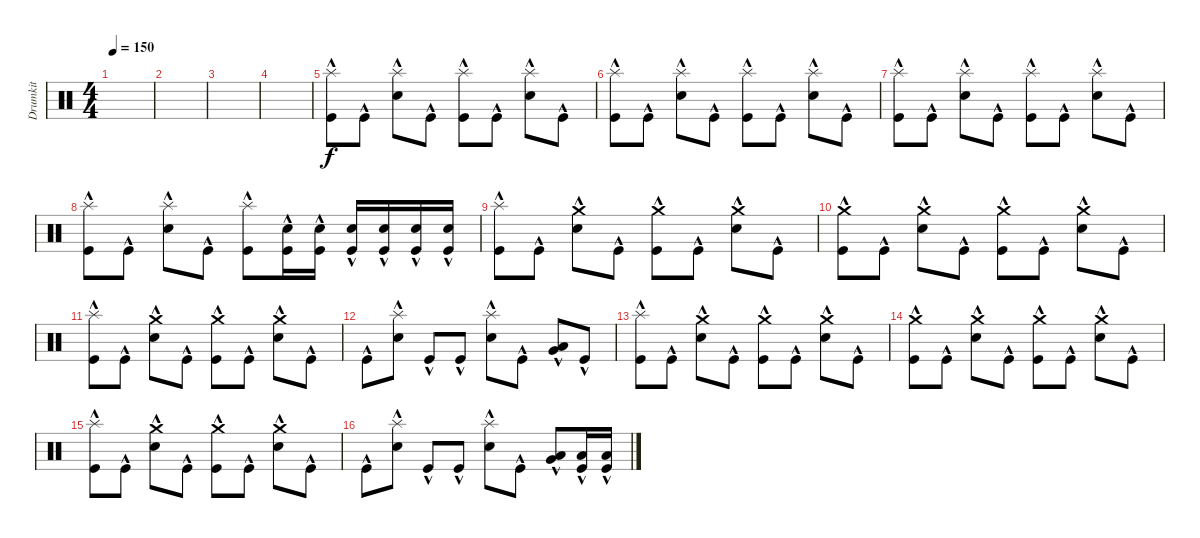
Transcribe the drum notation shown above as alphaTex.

\track ("Drumkit" "Drumkit") {instrument percussion}
\staff {score}
\articulation defaults
\ts (4 4)
\tempo 150
\clef neutral
\ks c
|
|
|
|
("Kick (hit)"{hac} "Splash (hit)"{hac}).8 "Kick (hit)"{hac}.8 ("Snare (hit) 2"{hac} "Splash (hit)"{hac}).8 "Kick (hit)"{hac}.8 ("Kick (hit)"{hac} "Splash (hit)"{hac}).8 "Kick (hit)"{hac}.8 ("Snare (hit) 2"{hac} "Splash (hit)"{hac}).8 "Kick (hit)"{hac}.8 |
("Kick (hit)"{hac} "Splash (hit)"{hac}).8 "Kick (hit)"{hac}.8 ("Snare (hit) 2"{hac} "Splash (hit)"{hac}).8 "Kick (hit)"{hac}.8 ("Kick (hit)"{hac} "Splash (hit)"{hac}).8 "Kick (hit)"{hac}.8 ("Snare (hit) 2"{hac} "Splash (hit)"{hac}).8 "Kick (hit)"{hac}.8 |
("Kick (hit)"{hac} "Splash (hit)"{hac}).8 "Kick (hit)"{hac}.8 ("Snare (hit) 2"{hac} "Splash (hit)"{hac}).8 "Kick (hit)"{hac}.8 ("Kick (hit)"{hac} "Splash (hit)"{hac}).8 "Kick (hit)"{hac}.8 ("Snare (hit) 2"{hac} "Splash (hit)"{hac}).8 "Kick (hit)"{hac}.8 |
("Kick (hit)"{hac} "Splash (hit)"{hac}).8 "Kick (hit)"{hac}.8 ("Snare (hit) 2"{hac} "Splash (hit)"{hac}).8 "Kick (hit)"{hac}.8 ("Kick (hit)"{hac} "Splash (hit)"{hac}).8 ("Snare (hit) 2"{hac} "Kick (hit)").16 ("Snare (hit) 2"{hac} "Kick (hit)").16 ("Snare (hit) 2"{hac} "Kick (hit)").16 ("Snare (hit) 2"{hac} "Kick (hit)").16 ("Snare (hit) 2"{hac} "Kick (hit)").16 ("Snare (hit) 2"{hac} "Kick (hit)").16 |
("Kick (hit)"{hac} "Splash (hit)"{hac}).8 "Kick (hit)"{hac}.8 ("Snare (hit) 2"{hac} "Crash medium (hit)").8 "Kick (hit)"{hac}.8 ("Kick (hit)"{hac} "Crash medium (hit)").8 "Kick (hit)"{hac}.8 ("Snare (hit) 2"{hac} "Crash medium (hit)").8 "Kick (hit)"{hac}.8 |
("Kick (hit)"{hac} "Crash medium (hit)").8 "Kick (hit)"{hac}.8 ("Snare (hit) 2"{hac} "Crash medium (hit)").8 "Kick (hit)"{hac}.8 ("Kick (hit)"{hac} "Crash medium (hit)").8 "Kick (hit)"{hac}.8 ("Snare (hit) 2"{hac} "Crash medium (hit)").8 "Kick (hit)"{hac}.8 |
("Kick (hit)"{hac} "Splash (hit)"{hac}).8 "Kick (hit)"{hac}.8 ("Snare (hit) 2"{hac} "Crash medium (hit)").8 "Kick (hit)"{hac}.8 ("Kick (hit)"{hac} "Crash medium (hit)").8 "Kick (hit)"{hac}.8 ("Snare (hit) 2"{hac} "Crash medium (hit)").8 "Kick (hit)"{hac}.8 |
"Kick (hit)"{hac}.8 ("Snare (hit) 2"{hac} "Splash (hit)"{hac}).8 "Kick (hit)"{hac}.8 "Kick (hit)"{hac}.8 ("Snare (hit) 2"{hac} "Splash (hit)"{hac}).8 "Kick (hit)"{hac}.8 ("Low Tom (hit)"{hac} "Very Low Tom (hit)"{hac}).8 "Kick (hit)"{hac}.8 |
("Kick (hit)"{hac} "Splash (hit)"{hac}).8 "Kick (hit)"{hac}.8 ("Snare (hit) 2"{hac} "Crash medium (hit)").8 "Kick (hit)"{hac}.8 ("Kick (hit)"{hac} "Crash medium (hit)").8 "Kick (hit)"{hac}.8 ("Snare (hit) 2"{hac} "Crash medium (hit)").8 "Kick (hit)"{hac}.8 |
("Kick (hit)"{hac} "Crash medium (hit)").8 "Kick (hit)"{hac}.8 ("Snare (hit) 2"{hac} "Crash medium (hit)").8 "Kick (hit)"{hac}.8 ("Kick (hit)"{hac} "Crash medium (hit)").8 "Kick (hit)"{hac}.8 ("Snare (hit) 2"{hac} "Crash medium (hit)").8 "Kick (hit)"{hac}.8 |
("Kick (hit)"{hac} "Splash (hit)"{hac}).8 "Kick (hit)"{hac}.8 ("Snare (hit) 2"{hac} "Crash medium (hit)").8 "Kick (hit)"{hac}.8 ("Kick (hit)"{hac} "Crash medium (hit)").8 "Kick (hit)"{hac}.8 ("Snare (hit) 2"{hac} "Crash medium (hit)").8 "Kick (hit)"{hac}.8 |
"Kick (hit)"{hac}.8 ("Snare (hit) 2"{hac} "Splash (hit)"{hac}).8 "Kick (hit)"{hac}.8 "Kick (hit)"{hac}.8 ("Snare (hit) 2"{hac} "Splash (hit)"{hac}).8 "Kick (hit)"{hac}.8 ("Low Tom (hit)"{hac} "Very Low Tom (hit)"{hac}).8 ("Kick (hit)"{hac} "Low Floor Tom (hit)"{hac}).16 ("Low Floor Tom (hit)"{hac} "Kick (hit)"{hac}).16
